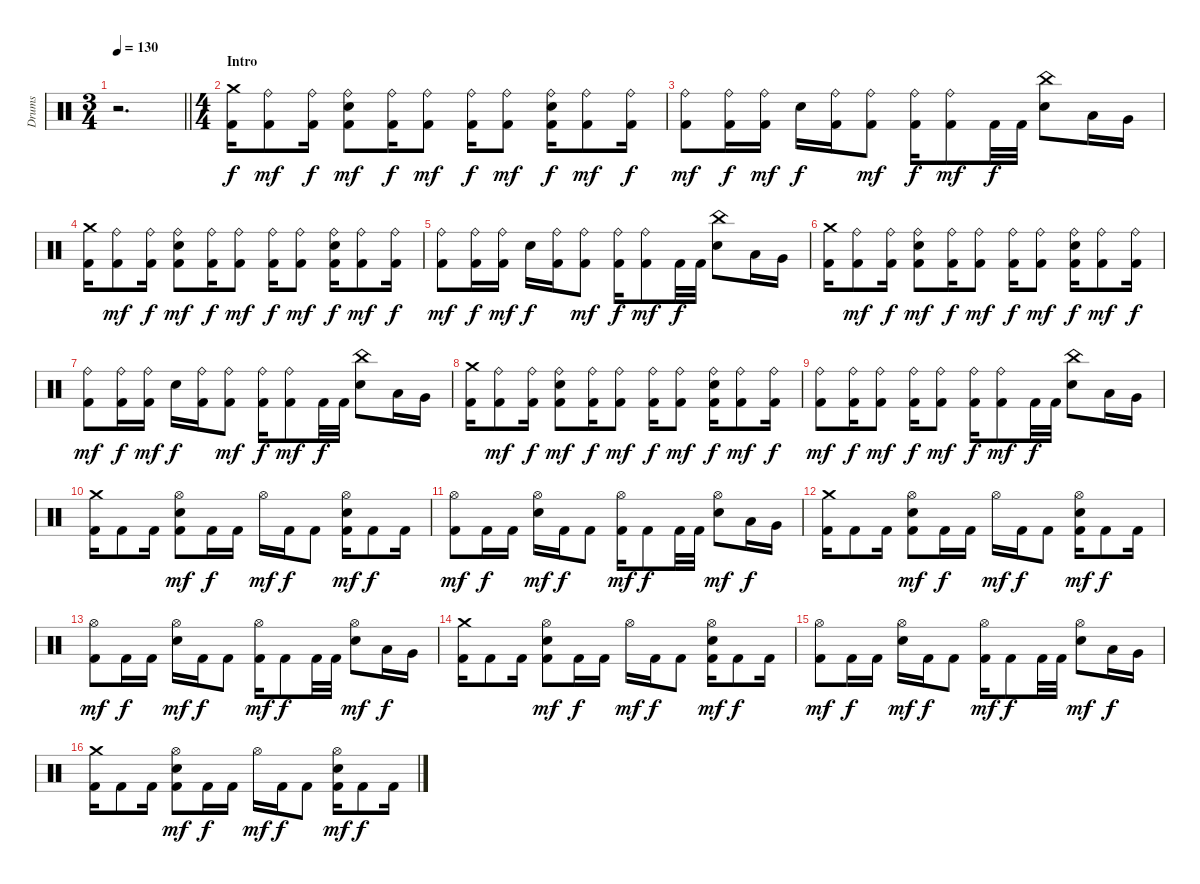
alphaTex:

\track ("Drums" "Drums") {instrument percussion}
\staff {score}
\articulation defaults
\ts (3 4)
\tempo 130
\clef neutral
\barLineRight lightlight
\ks c
r.2{d dy f} |
\ts (4 4)
\section ("" "Intro")
("Kick (hit) 2" "Crash medium (hit)").16 ("Kick (hit) 2" "Ride (bell)").8{dy mf} ("Kick (hit) 2" "Ride (bell)").16{dy f} ("Kick (hit) 2" "Ride (bell)" "Electric Snare (hit)").8{dy mf} ("Kick (hit) 2" "Ride (bell)").16{dy f} ("Kick (hit) 2" "Ride (bell)").8{dy mf} ("Kick (hit) 2" "Ride (bell)").16{dy f} ("Kick (hit) 2" "Ride (bell)").8{dy mf} ("Kick (hit) 2" "Ride (bell)" "Electric Snare (hit)").16{dy f} ("Kick (hit) 2" "Ride (bell)").8{dy mf} ("Kick (hit) 2" "Ride (bell)").16{dy f} |
("Kick (hit) 2" "Ride (bell)").8{dy mf} ("Kick (hit) 2" "Ride (bell)").16{dy f} ("Kick (hit) 2" "Ride (bell)").16{dy mf} "Electric Snare (hit)".16{dy f} ("Kick (hit) 2" "Ride (bell)").16 ("Kick (hit) 2" "Ride (bell)").8{dy mf} ("Kick (hit) 2" "Ride (bell)").16{dy f} ("Kick (hit) 2" "Ride (bell)").8{dy mf} "Kick (hit) 2".32{dy f} "Kick (hit) 2".32 ("China (hit)" "Electric Snare (hit)").8 "Low Tom (hit)".16 "Very Low Tom (hit)".16 |
("Kick (hit) 2" "Crash medium (hit)").16 ("Kick (hit) 2" "Ride (bell)").8{dy mf} ("Kick (hit) 2" "Ride (bell)").16{dy f} ("Kick (hit) 2" "Ride (bell)" "Electric Snare (hit)").8{dy mf} ("Kick (hit) 2" "Ride (bell)").16{dy f} ("Kick (hit) 2" "Ride (bell)").8{dy mf} ("Kick (hit) 2" "Ride (bell)").16{dy f} ("Kick (hit) 2" "Ride (bell)").8{dy mf} ("Kick (hit) 2" "Ride (bell)" "Electric Snare (hit)").16{dy f} ("Kick (hit) 2" "Ride (bell)").8{dy mf} ("Kick (hit) 2" "Ride (bell)").16{dy f} |
("Kick (hit) 2" "Ride (bell)").8{dy mf} ("Kick (hit) 2" "Ride (bell)").16{dy f} ("Kick (hit) 2" "Ride (bell)").16{dy mf} "Electric Snare (hit)".16{dy f} ("Kick (hit) 2" "Ride (bell)").16 ("Kick (hit) 2" "Ride (bell)").8{dy mf} ("Kick (hit) 2" "Ride (bell)").16{dy f} ("Kick (hit) 2" "Ride (bell)").8{dy mf} "Kick (hit) 2".32{dy f} "Kick (hit) 2".32 ("China (hit)" "Electric Snare (hit)").8 "Low Tom (hit)".16 "Very Low Tom (hit)".16 |
("Kick (hit) 2" "Crash medium (hit)").16 ("Kick (hit) 2" "Ride (bell)").8{dy mf} ("Kick (hit) 2" "Ride (bell)").16{dy f} ("Kick (hit) 2" "Ride (bell)" "Electric Snare (hit)").8{dy mf} ("Kick (hit) 2" "Ride (bell)").16{dy f} ("Kick (hit) 2" "Ride (bell)").8{dy mf} ("Kick (hit) 2" "Ride (bell)").16{dy f} ("Kick (hit) 2" "Ride (bell)").8{dy mf} ("Kick (hit) 2" "Ride (bell)" "Electric Snare (hit)").16{dy f} ("Kick (hit) 2" "Ride (bell)").8{dy mf} ("Kick (hit) 2" "Ride (bell)").16{dy f} |
("Kick (hit) 2" "Ride (bell)").8{dy mf} ("Kick (hit) 2" "Ride (bell)").16{dy f} ("Kick (hit) 2" "Ride (bell)").16{dy mf} "Electric Snare (hit)".16{dy f} ("Kick (hit) 2" "Ride (bell)").16 ("Kick (hit) 2" "Ride (bell)").8{dy mf} ("Kick (hit) 2" "Ride (bell)").16{dy f} ("Kick (hit) 2" "Ride (bell)").8{dy mf} "Kick (hit) 2".32{dy f} "Kick (hit) 2".32 ("China (hit)" "Electric Snare (hit)").8 "Low Tom (hit)".16 "Very Low Tom (hit)".16 |
("Kick (hit) 2" "Crash medium (hit)").16 ("Kick (hit) 2" "Ride (bell)").8{dy mf} ("Kick (hit) 2" "Ride (bell)").16{dy f} ("Kick (hit) 2" "Ride (bell)" "Electric Snare (hit)").8{dy mf} ("Kick (hit) 2" "Ride (bell)").16{dy f} ("Kick (hit) 2" "Ride (bell)").8{dy mf} ("Kick (hit) 2" "Ride (bell)").16{dy f} ("Kick (hit) 2" "Ride (bell)").8{dy mf} ("Kick (hit) 2" "Ride (bell)" "Electric Snare (hit)").16{dy f} ("Kick (hit) 2" "Ride (bell)").8{dy mf} ("Kick (hit) 2" "Ride (bell)").16{dy f} |
("Kick (hit) 2" "Ride (bell)").8{dy mf} ("Kick (hit) 2" "Ride (bell)").16{dy f} ("Kick (hit) 2" "Ride (bell)").8{dy mf} ("Kick (hit) 2" "Ride (bell)").16{dy f} ("Kick (hit) 2" "Ride (bell)").8{dy mf} ("Kick (hit) 2" "Ride (bell)").16{dy f} ("Kick (hit) 2" "Ride (bell)").8{dy mf} "Kick (hit) 2".32{dy f} "Kick (hit) 2".32 ("China (hit)" "Electric Snare (hit)").8 "Low Tom (hit)".16 "Very Low Tom (hit)".16 |
("Kick (hit) 2" "Crash medium (hit)").16 "Kick (hit) 2".8 "Kick (hit) 2".16 ("Kick (hit) 2" "Hi-Hat (open)" "Electric Snare (hit)").8{dy mf} "Kick (hit) 2".16{dy f} "Kick (hit) 2".16 "Hi-Hat (open)".16{dy mf} "Kick (hit) 2".16{dy f} "Kick (hit) 2".8 ("Kick (hit) 2" "Hi-Hat (open)" "Electric Snare (hit)").16{dy mf} "Kick (hit) 2".8{dy f} "Kick (hit) 2".16 |
("Kick (hit) 2" "Hi-Hat (open)").8{dy mf} "Kick (hit) 2".16{dy f} "Kick (hit) 2".16 ("Hi-Hat (open)" "Electric Snare (hit)").16{dy mf} "Kick (hit) 2".16{dy f} "Kick (hit) 2".8 ("Kick (hit) 2" "Hi-Hat (open)").16{dy mf} "Kick (hit) 2".8{dy f} "Kick (hit) 2".32 "Kick (hit) 2".32 ("Hi-Hat (open)" "Electric Snare (hit)").8{dy mf} "Low Tom (hit)".16{dy f} "Very Low Tom (hit)".16 |
("Kick (hit) 2" "Crash medium (hit)").16 "Kick (hit) 2".8 "Kick (hit) 2".16 ("Kick (hit) 2" "Hi-Hat (open)" "Electric Snare (hit)").8{dy mf} "Kick (hit) 2".16{dy f} "Kick (hit) 2".16 "Hi-Hat (open)".16{dy mf} "Kick (hit) 2".16{dy f} "Kick (hit) 2".8 ("Kick (hit) 2" "Hi-Hat (open)" "Electric Snare (hit)").16{dy mf} "Kick (hit) 2".8{dy f} "Kick (hit) 2".16 |
("Kick (hit) 2" "Hi-Hat (open)").8{dy mf} "Kick (hit) 2".16{dy f} "Kick (hit) 2".16 ("Hi-Hat (open)" "Electric Snare (hit)").16{dy mf} "Kick (hit) 2".16{dy f} "Kick (hit) 2".8 ("Kick (hit) 2" "Hi-Hat (open)").16{dy mf} "Kick (hit) 2".8{dy f} "Kick (hit) 2".32 "Kick (hit) 2".32 ("Hi-Hat (open)" "Electric Snare (hit)").8{dy mf} "Low Tom (hit)".16{dy f} "Very Low Tom (hit)".16 |
("Kick (hit) 2" "Crash medium (hit)").16 "Kick (hit) 2".8 "Kick (hit) 2".16 ("Kick (hit) 2" "Hi-Hat (open)" "Electric Snare (hit)").8{dy mf} "Kick (hit) 2".16{dy f} "Kick (hit) 2".16 "Hi-Hat (open)".16{dy mf} "Kick (hit) 2".16{dy f} "Kick (hit) 2".8 ("Kick (hit) 2" "Hi-Hat (open)" "Electric Snare (hit)").16{dy mf} "Kick (hit) 2".8{dy f} "Kick (hit) 2".16 |
("Kick (hit) 2" "Hi-Hat (open)").8{dy mf} "Kick (hit) 2".16{dy f} "Kick (hit) 2".16 ("Hi-Hat (open)" "Electric Snare (hit)").16{dy mf} "Kick (hit) 2".16{dy f} "Kick (hit) 2".8 ("Kick (hit) 2" "Hi-Hat (open)").16{dy mf} "Kick (hit) 2".8{dy f} "Kick (hit) 2".32 "Kick (hit) 2".32 ("Hi-Hat (open)" "Electric Snare (hit)").8{dy mf} "Low Tom (hit)".16{dy f} "Very Low Tom (hit)".16 |
("Kick (hit) 2" "Crash medium (hit)").16 "Kick (hit) 2".8 "Kick (hit) 2".16 ("Kick (hit) 2" "Hi-Hat (open)" "Electric Snare (hit)").8{dy mf} "Kick (hit) 2".16{dy f} "Kick (hit) 2".16 "Hi-Hat (open)".16{dy mf} "Kick (hit) 2".16{dy f} "Kick (hit) 2".8 ("Kick (hit) 2" "Hi-Hat (open)" "Electric Snare (hit)").16{dy mf} "Kick (hit) 2".8{dy f} "Kick (hit) 2".16
